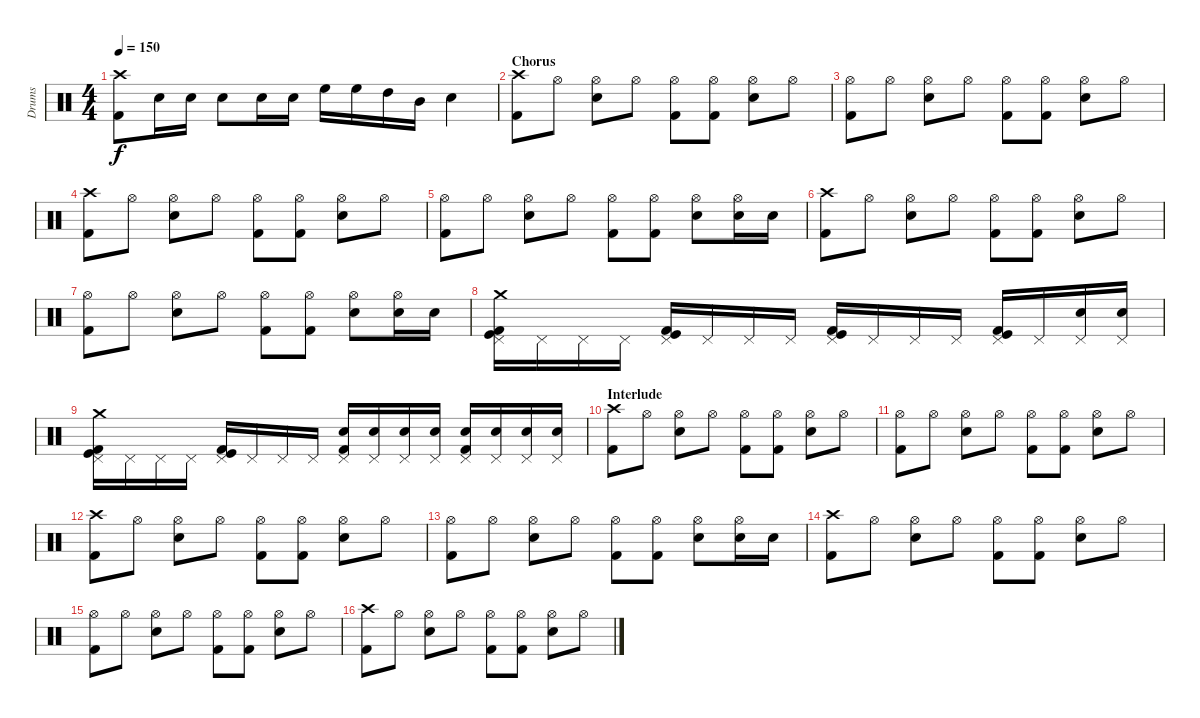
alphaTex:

\track ("Drums" "Drums") {instrument percussion}
\staff {score}
\articulation defaults
\ts (4 4)
\tempo 150
\clef neutral
\ks c
("Crash high (hit)" "Kick (hit) 2").8{dy f} "Snare (hit) 2".16 "Snare (hit) 2".16 "Snare (hit) 2".8 "Snare (hit) 2".16 "Snare (hit) 2".16 "High Floor Tom (hit)".16 "High Floor Tom (hit)".16 "High Tom (hit)".16 "Mid Tom (hit)".16 "Snare (hit) 2".4 |
\section ("" "Chorus")
("Crash high (hit)" "Kick (hit) 2").8 "Hi-Hat (open)".8 ("Hi-Hat (open)" "Snare (hit) 2").8 "Hi-Hat (open)".8 ("Hi-Hat (open)" "Kick (hit) 2").8 ("Hi-Hat (open)" "Kick (hit) 2").8 ("Hi-Hat (open)" "Snare (hit) 2").8 "Hi-Hat (open)".8 |
("Hi-Hat (open)" "Kick (hit) 2").8 "Hi-Hat (open)".8 ("Hi-Hat (open)" "Snare (hit) 2").8 "Hi-Hat (open)".8 ("Hi-Hat (open)" "Kick (hit) 2").8 ("Hi-Hat (open)" "Kick (hit) 2").8 ("Hi-Hat (open)" "Snare (hit) 2").8 "Hi-Hat (open)".8 |
("Crash high (hit)" "Kick (hit) 2").8 "Hi-Hat (open)".8 ("Hi-Hat (open)" "Snare (hit) 2").8 "Hi-Hat (open)".8 ("Hi-Hat (open)" "Kick (hit) 2").8 ("Hi-Hat (open)" "Kick (hit) 2").8 ("Hi-Hat (open)" "Snare (hit) 2").8 "Hi-Hat (open)".8 |
("Hi-Hat (open)" "Kick (hit) 2").8 "Hi-Hat (open)".8 ("Hi-Hat (open)" "Snare (hit) 2").8 "Hi-Hat (open)".8 ("Hi-Hat (open)" "Kick (hit) 2").8 ("Hi-Hat (open)" "Kick (hit) 2").8 ("Hi-Hat (open)" "Snare (hit) 2").8 ("Hi-Hat (open)" "Snare (hit) 2").16 "Snare (hit) 2".16 |
("Crash high (hit)" "Kick (hit) 2").8 "Hi-Hat (open)".8 ("Hi-Hat (open)" "Snare (hit) 2").8 "Hi-Hat (open)".8 ("Hi-Hat (open)" "Kick (hit) 2").8 ("Hi-Hat (open)" "Kick (hit) 2").8 ("Hi-Hat (open)" "Snare (hit) 2").8 "Hi-Hat (open)".8 |
("Hi-Hat (open)" "Kick (hit) 2").8 "Hi-Hat (open)".8 ("Hi-Hat (open)" "Snare (hit) 2").8 "Hi-Hat (open)".8 ("Hi-Hat (open)" "Kick (hit) 2").8 ("Hi-Hat (open)" "Kick (hit) 2").8 ("Hi-Hat (open)" "Snare (hit) 2").8 ("Hi-Hat (open)" "Snare (hit) 2").16 "Snare (hit) 2".16 |
("Pedal Hi-Hat (hit)" "Kick (hit) 2" "Kick (hit)" "Crash medium (hit)").16 "Pedal Hi-Hat (hit)".16 "Pedal Hi-Hat (hit)".16 "Pedal Hi-Hat (hit)".16 ("Pedal Hi-Hat (hit)" "Kick (hit) 2" "Kick (hit)").16 "Pedal Hi-Hat (hit)".16 "Pedal Hi-Hat (hit)".16 "Pedal Hi-Hat (hit)".16 ("Pedal Hi-Hat (hit)" "Kick (hit) 2" "Kick (hit)").16 "Pedal Hi-Hat (hit)".16 "Pedal Hi-Hat (hit)".16 "Pedal Hi-Hat (hit)".16 ("Pedal Hi-Hat (hit)" "Kick (hit) 2" "Kick (hit)").16 "Pedal Hi-Hat (hit)".16 ("Pedal Hi-Hat (hit)" "Snare (hit) 2").16 ("Pedal Hi-Hat (hit)" "Snare (hit) 2").16 |
("Pedal Hi-Hat (hit)" "Kick (hit) 2" "Kick (hit)" "Crash medium (hit)").16 "Pedal Hi-Hat (hit)".16 "Pedal Hi-Hat (hit)".16 "Pedal Hi-Hat (hit)".16 ("Pedal Hi-Hat (hit)" "Kick (hit) 2" "Kick (hit)").16 "Pedal Hi-Hat (hit)".16 "Pedal Hi-Hat (hit)".16 "Pedal Hi-Hat (hit)".16 ("Pedal Hi-Hat (hit)" "Snare (hit) 2" "Kick (hit) 2").16 ("Pedal Hi-Hat (hit)" "Snare (hit) 2").16 ("Pedal Hi-Hat (hit)" "Snare (hit) 2").16 ("Pedal Hi-Hat (hit)" "Snare (hit) 2").16 ("Pedal Hi-Hat (hit)" "Snare (hit) 2" "Kick (hit) 2").16 ("Pedal Hi-Hat (hit)" "Snare (hit) 2").16 ("Pedal Hi-Hat (hit)" "Snare (hit) 2").16 ("Pedal Hi-Hat (hit)" "Snare (hit) 2").16 |
\section ("" "Interlude")
("Crash high (hit)" "Kick (hit) 2").8 "Hi-Hat (open)".8 ("Hi-Hat (open)" "Snare (hit) 2").8 "Hi-Hat (open)".8 ("Hi-Hat (open)" "Kick (hit) 2").8 ("Hi-Hat (open)" "Kick (hit) 2").8 ("Hi-Hat (open)" "Snare (hit) 2").8 "Hi-Hat (open)".8 |
("Hi-Hat (open)" "Kick (hit) 2").8 "Hi-Hat (open)".8 ("Hi-Hat (open)" "Snare (hit) 2").8 "Hi-Hat (open)".8 ("Hi-Hat (open)" "Kick (hit) 2").8 ("Hi-Hat (open)" "Kick (hit) 2").8 ("Hi-Hat (open)" "Snare (hit) 2").8 "Hi-Hat (open)".8 |
("Crash high (hit)" "Kick (hit) 2").8 "Hi-Hat (open)".8 ("Hi-Hat (open)" "Snare (hit) 2").8 "Hi-Hat (open)".8 ("Hi-Hat (open)" "Kick (hit) 2").8 ("Hi-Hat (open)" "Kick (hit) 2").8 ("Hi-Hat (open)" "Snare (hit) 2").8 "Hi-Hat (open)".8 |
("Hi-Hat (open)" "Kick (hit) 2").8 "Hi-Hat (open)".8 ("Hi-Hat (open)" "Snare (hit) 2").8 "Hi-Hat (open)".8 ("Hi-Hat (open)" "Kick (hit) 2").8 ("Hi-Hat (open)" "Kick (hit) 2").8 ("Hi-Hat (open)" "Snare (hit) 2").8 ("Hi-Hat (open)" "Snare (hit) 2").16 "Snare (hit) 2".16 |
("Crash high (hit)" "Kick (hit) 2").8 "Hi-Hat (open)".8 ("Hi-Hat (open)" "Snare (hit) 2").8 "Hi-Hat (open)".8 ("Hi-Hat (open)" "Kick (hit) 2").8 ("Hi-Hat (open)" "Kick (hit) 2").8 ("Hi-Hat (open)" "Snare (hit) 2").8 "Hi-Hat (open)".8 |
("Hi-Hat (open)" "Kick (hit) 2").8 "Hi-Hat (open)".8 ("Hi-Hat (open)" "Snare (hit) 2").8 "Hi-Hat (open)".8 ("Hi-Hat (open)" "Kick (hit) 2").8 ("Hi-Hat (open)" "Kick (hit) 2").8 ("Hi-Hat (open)" "Snare (hit) 2").8 "Hi-Hat (open)".8 |
("Crash high (hit)" "Kick (hit) 2").8 "Hi-Hat (open)".8 ("Hi-Hat (open)" "Snare (hit) 2").8 "Hi-Hat (open)".8 ("Hi-Hat (open)" "Kick (hit) 2").8 ("Hi-Hat (open)" "Kick (hit) 2").8 ("Hi-Hat (open)" "Snare (hit) 2").8 "Hi-Hat (open)".8
